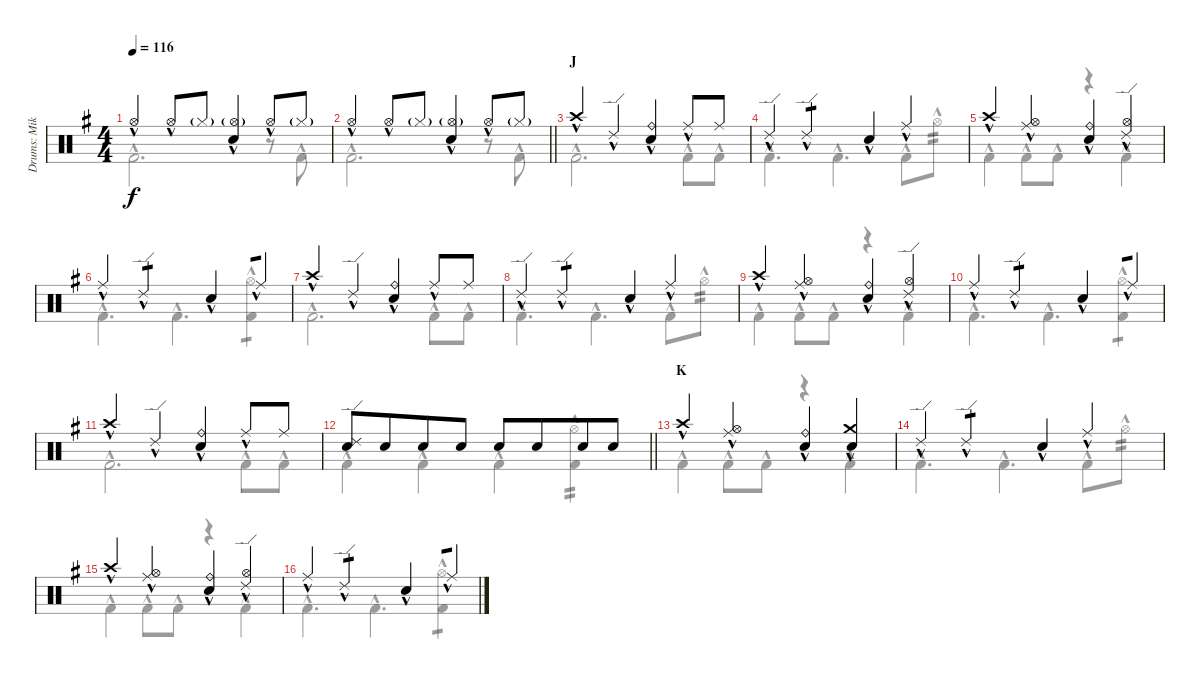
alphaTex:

\track ("Drums: Mike" "Drums: Mik") {instrument percussion}
\staff {score}
\articulation defaults
\voice
\ts (4 4)
\tempo 116
\clef neutral
\ks g "Hi-Hat (open)"{hac}.4{dy f} "Hi-Hat (open)"{hac}.8 "Hi-Hat (closed)"{g}.8
("Hi-Hat (open)"{g} "Snare (hit) 2"{hac}).4 "Hi-Hat (open)"{hac}.8 "Hi-Hat (closed)"{g}.8 |
\barLineRight lightlight "Hi-Hat (open)"{hac}.4 "Hi-Hat (open)"{hac}.8 "Hi-Hat (closed)"{g}.8
("Hi-Hat (open)"{g} "Snare (hit) 2"{hac}).4 "Hi-Hat (open)"{hac}.8 "Hi-Hat (closed)"{g}.8 |
\section ("" "J")
"Crash high (hit)"{hac}.4 "Ride (edge) 2"{hac}.4 ("Ride (bell)"{hac} "Snare (hit) 2"{hac}).4 "Ride (middle)"{hac}.8 "Ride (middle)".8 |
"Ride (edge) 2"{hac}.4 "Ride (edge) 2"{hac}.4{tp 1} "Snare (hit) 2"{hac}.4 "Ride (middle)"{hac}.4 |
"Crash high (hit)"{hac}.4 ("Ride (middle)"{hac} "Hi-Hat (open)"{hac}).4 ("Ride (bell)"{hac} "Snare (hit) 2"{hac}).4 ("Ride (edge) 2"{hac} "Hi-Hat (open)"{hac}).4 |
"Ride (middle)"{hac}.4 "Ride (edge) 2"{hac}.4{tp 1} "Snare (hit) 2"{hac}.4 "Ride (middle)"{hac}.4{tp 1} |
"Crash high (hit)"{hac}.4 "Ride (edge) 2"{hac}.4 ("Ride (bell)"{hac} "Snare (hit) 2"{hac}).4 "Ride (middle)"{hac}.8 "Ride (middle)".8 |
"Ride (edge) 2"{hac}.4 "Ride (edge) 2"{hac}.4{tp 1} "Snare (hit) 2"{hac}.4 "Ride (middle)"{hac}.4 |
"Crash high (hit)"{hac}.4 ("Ride (middle)"{hac} "Hi-Hat (open)"{hac}).4 ("Ride (bell)"{hac} "Snare (hit) 2"{hac}).4 ("Ride (edge) 2"{hac} "Hi-Hat (open)"{hac}).4 |
"Ride (middle)"{hac}.4 "Ride (edge) 2"{hac}.4{tp 1} "Snare (hit) 2"{hac}.4 "Ride (middle)"{hac}.4{tp 1} |
"Crash high (hit)"{hac}.4 "Ride (edge) 2"{hac}.4 ("Ride (bell)"{hac} "Snare (hit) 2"{hac}).4 "Ride (middle)"{hac}.8 "Ride (middle)".8 |
\barLineRight lightlight
("Ride (edge) 2" "Electric Snare (hit)").8 "Electric Snare (hit)".8{beam merge} "Electric Snare (hit)".8 "Electric Snare (hit)".8 "Electric Snare (hit)".8 "Electric Snare (hit)".8{beam merge} "Electric Snare (hit)".8 "Electric Snare (hit)".8 |
\section ("" "K")
"Crash high (hit)"{hac}.4 ("Ride (middle)"{hac} "Hi-Hat (open)"{hac}).4 ("Ride (bell)"{hac} "Snare (hit) 2"{hac}).4 ("Crash medium (hit)"{hac} "Snare (hit) 2"{hac}).4 |
"Ride (edge) 2"{hac}.4 "Ride (edge) 2"{hac}.4{tp 1} "Snare (hit) 2"{hac}.4 "Ride (middle)"{hac}.4 |
"Crash high (hit)"{hac}.4 ("Ride (middle)"{hac} "Hi-Hat (open)"{hac}).4 ("Ride (bell)"{hac} "Snare (hit) 2"{hac}).4 ("Ride (edge) 2"{hac} "Hi-Hat (open)"{hac}).4 |
"Ride (middle)"{hac}.4 "Ride (edge) 2"{hac}.4{tp 1} "Snare (hit) 2"{hac}.4 "Ride (middle)"{hac}.4{tp 1}
\voice
\clef neutral
\ottava regular
\simile none
\ks g "Kick (hit) 2"{hac}.2{d dy f}
r.8 "Kick (hit) 2"{hac}.8 |
\barLineRight lightlight "Kick (hit) 2"{hac}.2{d}
r.8 "Kick (hit) 2"{hac}.8 |
"Kick (hit) 2"{hac}.2{d} "Kick (hit) 2"{hac}.8 "Kick (hit) 2"{hac}.8 |
"Kick (hit) 2"{hac}.4{d} "Kick (hit) 2"{hac}.4{d} "Kick (hit) 2"{hac}.8 "Hi-Hat (open)"{hac}.8{tp 2} |
"Kick (hit) 2"{hac}.4 "Kick (hit) 2"{hac}.8 "Kick (hit) 2"{hac}.8 r.4 "Kick (hit) 2"{hac}.4 |
"Kick (hit) 2"{hac}.4{d} "Kick (hit) 2"{hac}.4{d} ("Hi-Hat (open)"{hac} "Kick (hit) 2"{hac}).4{tp 1} |
"Kick (hit) 2"{hac}.2{d} "Kick (hit) 2"{hac}.8 "Kick (hit) 2"{hac}.8 |
"Kick (hit) 2"{hac}.4{d} "Kick (hit) 2"{hac}.4{d} "Kick (hit) 2"{hac}.8 "Hi-Hat (open)"{hac}.8{tp 2} |
"Kick (hit) 2"{hac}.4 "Kick (hit) 2"{hac}.8 "Kick (hit) 2"{hac}.8 r.4 "Kick (hit) 2"{hac}.4 |
"Kick (hit) 2"{hac}.4{d} "Kick (hit) 2"{hac}.4{d} ("Hi-Hat (open)"{hac} "Kick (hit) 2"{hac}).4{tp 1} |
"Kick (hit) 2"{hac}.2{d} "Kick (hit) 2"{hac}.8 "Kick (hit) 2"{hac}.8 |
\barLineRight lightlight "Kick (hit) 2"{hac}.4 "Kick (hit) 2"{hac}.4 "Kick (hit) 2"{hac}.4
("Hi-Hat (open)"{hac} "Kick (hit) 2").4{tp 2} |
"Kick (hit) 2"{hac}.4 "Kick (hit) 2"{hac}.8 "Kick (hit) 2"{hac}.8 r.4 "Kick (hit) 2"{hac}.4 |
"Kick (hit) 2"{hac}.4{d} "Kick (hit) 2"{hac}.4{d} "Kick (hit) 2"{hac}.8 "Hi-Hat (open)"{hac}.8{tp 2} |
"Kick (hit) 2"{hac}.4 "Kick (hit) 2"{hac}.8 "Kick (hit) 2"{hac}.8 r.4 "Kick (hit) 2"{hac}.4 |
"Kick (hit) 2"{hac}.4{d} "Kick (hit) 2"{hac}.4{d} ("Hi-Hat (open)"{hac} "Kick (hit) 2"{hac}).4{tp 1}
